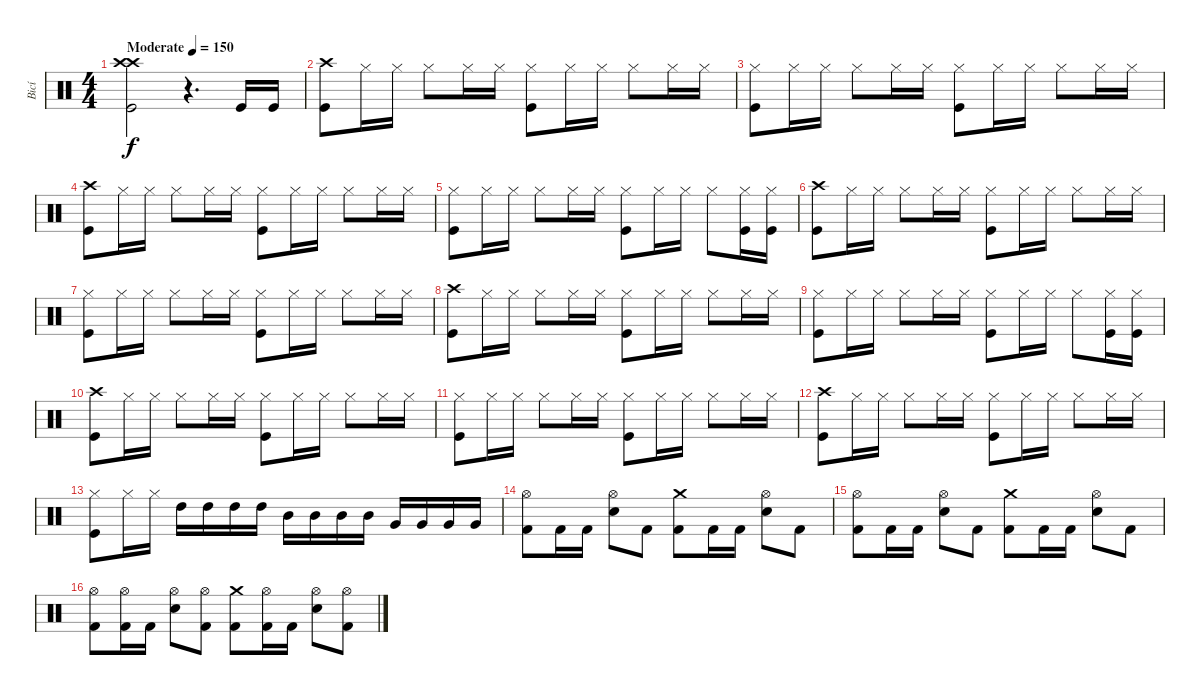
\track ("Bicí" "Bicí") {instrument percussion}
\staff {score}
\articulation defaults
\ts (4 4)
\tempo (150 "Moderate")
\clef neutral
\ks c
("Kick (hit)" "Crash high (hit)" "Crash high (hit)").2{dy f} r.4{d} "Kick (hit)".16 "Kick (hit)".16 |
("Kick (hit)" "Crash high (hit)").8 "Hi-Hat (closed)".16 "Hi-Hat (closed)".16 "Hi-Hat (closed)".8 "Hi-Hat (closed)".16 "Hi-Hat (closed)".16 ("Kick (hit)" "Hi-Hat (closed)").8 "Hi-Hat (closed)".16 "Hi-Hat (closed)".16 "Hi-Hat (closed)".8 "Hi-Hat (closed)".16 "Hi-Hat (closed)".16 |
("Kick (hit)" "Hi-Hat (closed)").8 "Hi-Hat (closed)".16 "Hi-Hat (closed)".16 "Hi-Hat (closed)".8 "Hi-Hat (closed)".16 "Hi-Hat (closed)".16 ("Kick (hit)" "Hi-Hat (closed)").8 "Hi-Hat (closed)".16 "Hi-Hat (closed)".16 "Hi-Hat (closed)".8 "Hi-Hat (closed)".16 "Hi-Hat (closed)".16 |
("Kick (hit)" "Crash high (hit)").8 "Hi-Hat (closed)".16 "Hi-Hat (closed)".16 "Hi-Hat (closed)".8 "Hi-Hat (closed)".16 "Hi-Hat (closed)".16 ("Kick (hit)" "Hi-Hat (closed)").8 "Hi-Hat (closed)".16 "Hi-Hat (closed)".16 "Hi-Hat (closed)".8 "Hi-Hat (closed)".16 "Hi-Hat (closed)".16 |
("Kick (hit)" "Hi-Hat (closed)").8 "Hi-Hat (closed)".16 "Hi-Hat (closed)".16 "Hi-Hat (closed)".8 "Hi-Hat (closed)".16 "Hi-Hat (closed)".16 ("Kick (hit)" "Hi-Hat (closed)").8 "Hi-Hat (closed)".16 "Hi-Hat (closed)".16 "Hi-Hat (closed)".8 ("Hi-Hat (closed)" "Kick (hit)").16 ("Hi-Hat (closed)" "Kick (hit)").16 |
("Kick (hit)" "Crash high (hit)").8 "Hi-Hat (closed)".16 "Hi-Hat (closed)".16 "Hi-Hat (closed)".8 "Hi-Hat (closed)".16 "Hi-Hat (closed)".16 ("Kick (hit)" "Hi-Hat (closed)").8 "Hi-Hat (closed)".16 "Hi-Hat (closed)".16 "Hi-Hat (closed)".8 "Hi-Hat (closed)".16 "Hi-Hat (closed)".16 |
("Kick (hit)" "Hi-Hat (closed)").8 "Hi-Hat (closed)".16 "Hi-Hat (closed)".16 "Hi-Hat (closed)".8 "Hi-Hat (closed)".16 "Hi-Hat (closed)".16 ("Kick (hit)" "Hi-Hat (closed)").8 "Hi-Hat (closed)".16 "Hi-Hat (closed)".16 "Hi-Hat (closed)".8 "Hi-Hat (closed)".16 "Hi-Hat (closed)".16 |
("Kick (hit)" "Crash high (hit)").8 "Hi-Hat (closed)".16 "Hi-Hat (closed)".16 "Hi-Hat (closed)".8 "Hi-Hat (closed)".16 "Hi-Hat (closed)".16 ("Kick (hit)" "Hi-Hat (closed)").8 "Hi-Hat (closed)".16 "Hi-Hat (closed)".16 "Hi-Hat (closed)".8 "Hi-Hat (closed)".16 "Hi-Hat (closed)".16 |
("Kick (hit)" "Hi-Hat (closed)").8 "Hi-Hat (closed)".16 "Hi-Hat (closed)".16 "Hi-Hat (closed)".8 "Hi-Hat (closed)".16 "Hi-Hat (closed)".16 ("Kick (hit)" "Hi-Hat (closed)").8 "Hi-Hat (closed)".16 "Hi-Hat (closed)".16 "Hi-Hat (closed)".8 ("Hi-Hat (closed)" "Kick (hit)").16 ("Hi-Hat (closed)" "Kick (hit)").16 |
("Kick (hit)" "Crash high (hit)").8 "Hi-Hat (closed)".16 "Hi-Hat (closed)".16 "Hi-Hat (closed)".8 "Hi-Hat (closed)".16 "Hi-Hat (closed)".16 ("Kick (hit)" "Hi-Hat (closed)").8 "Hi-Hat (closed)".16 "Hi-Hat (closed)".16 "Hi-Hat (closed)".8 "Hi-Hat (closed)".16 "Hi-Hat (closed)".16 |
("Kick (hit)" "Hi-Hat (closed)").8 "Hi-Hat (closed)".16 "Hi-Hat (closed)".16 "Hi-Hat (closed)".8 "Hi-Hat (closed)".16 "Hi-Hat (closed)".16 ("Kick (hit)" "Hi-Hat (closed)").8 "Hi-Hat (closed)".16 "Hi-Hat (closed)".16 "Hi-Hat (closed)".8 "Hi-Hat (closed)".16 "Hi-Hat (closed)".16 |
("Kick (hit)" "Crash high (hit)").8 "Hi-Hat (closed)".16 "Hi-Hat (closed)".16 "Hi-Hat (closed)".8 "Hi-Hat (closed)".16 "Hi-Hat (closed)".16 ("Kick (hit)" "Hi-Hat (closed)").8 "Hi-Hat (closed)".16 "Hi-Hat (closed)".16 "Hi-Hat (closed)".8 "Hi-Hat (closed)".16 "Hi-Hat (closed)".16 |
("Kick (hit)" "Hi-Hat (closed)").8 "Hi-Hat (closed)".16 "Hi-Hat (closed)".16 "High Tom (hit)".16 "High Tom (hit)".16 "High Tom (hit)".16 "High Tom (hit)".16 "Mid Tom (hit)".16 "Mid Tom (hit)".16 "Mid Tom (hit)".16 "Mid Tom (hit)".16 "Very Low Tom (hit)".16 "Very Low Tom (hit)".16 "Very Low Tom (hit)".16 "Very Low Tom (hit)".16 |
("Hi-Hat (open)" "Kick (hit) 2").8 "Kick (hit) 2".16 "Kick (hit) 2".16 ("Hi-Hat (open)" "Snare (hit) 2").8 "Kick (hit) 2".8 ("Crash medium (hit)" "Kick (hit) 2").8 "Kick (hit) 2".16 "Kick (hit) 2".16 ("Hi-Hat (open)" "Snare (hit) 2").8 "Kick (hit) 2".8 |
("Hi-Hat (open)" "Kick (hit) 2").8 "Kick (hit) 2".16 "Kick (hit) 2".16 ("Hi-Hat (open)" "Snare (hit) 2").8 "Kick (hit) 2".8 ("Crash medium (hit)" "Kick (hit) 2").8 "Kick (hit) 2".16 "Kick (hit) 2".16 ("Hi-Hat (open)" "Snare (hit) 2").8 "Kick (hit) 2".8 |
("Hi-Hat (open)" "Kick (hit) 2").8 ("Hi-Hat (open)" "Kick (hit) 2").16 "Kick (hit) 2".16 ("Hi-Hat (open)" "Snare (hit) 2").8 ("Hi-Hat (open)" "Kick (hit) 2").8 ("Crash medium (hit)" "Kick (hit) 2").8 ("Hi-Hat (open)" "Kick (hit) 2").16 "Kick (hit) 2".16 ("Hi-Hat (open)" "Snare (hit) 2").8 ("Hi-Hat (open)" "Kick (hit) 2").8
